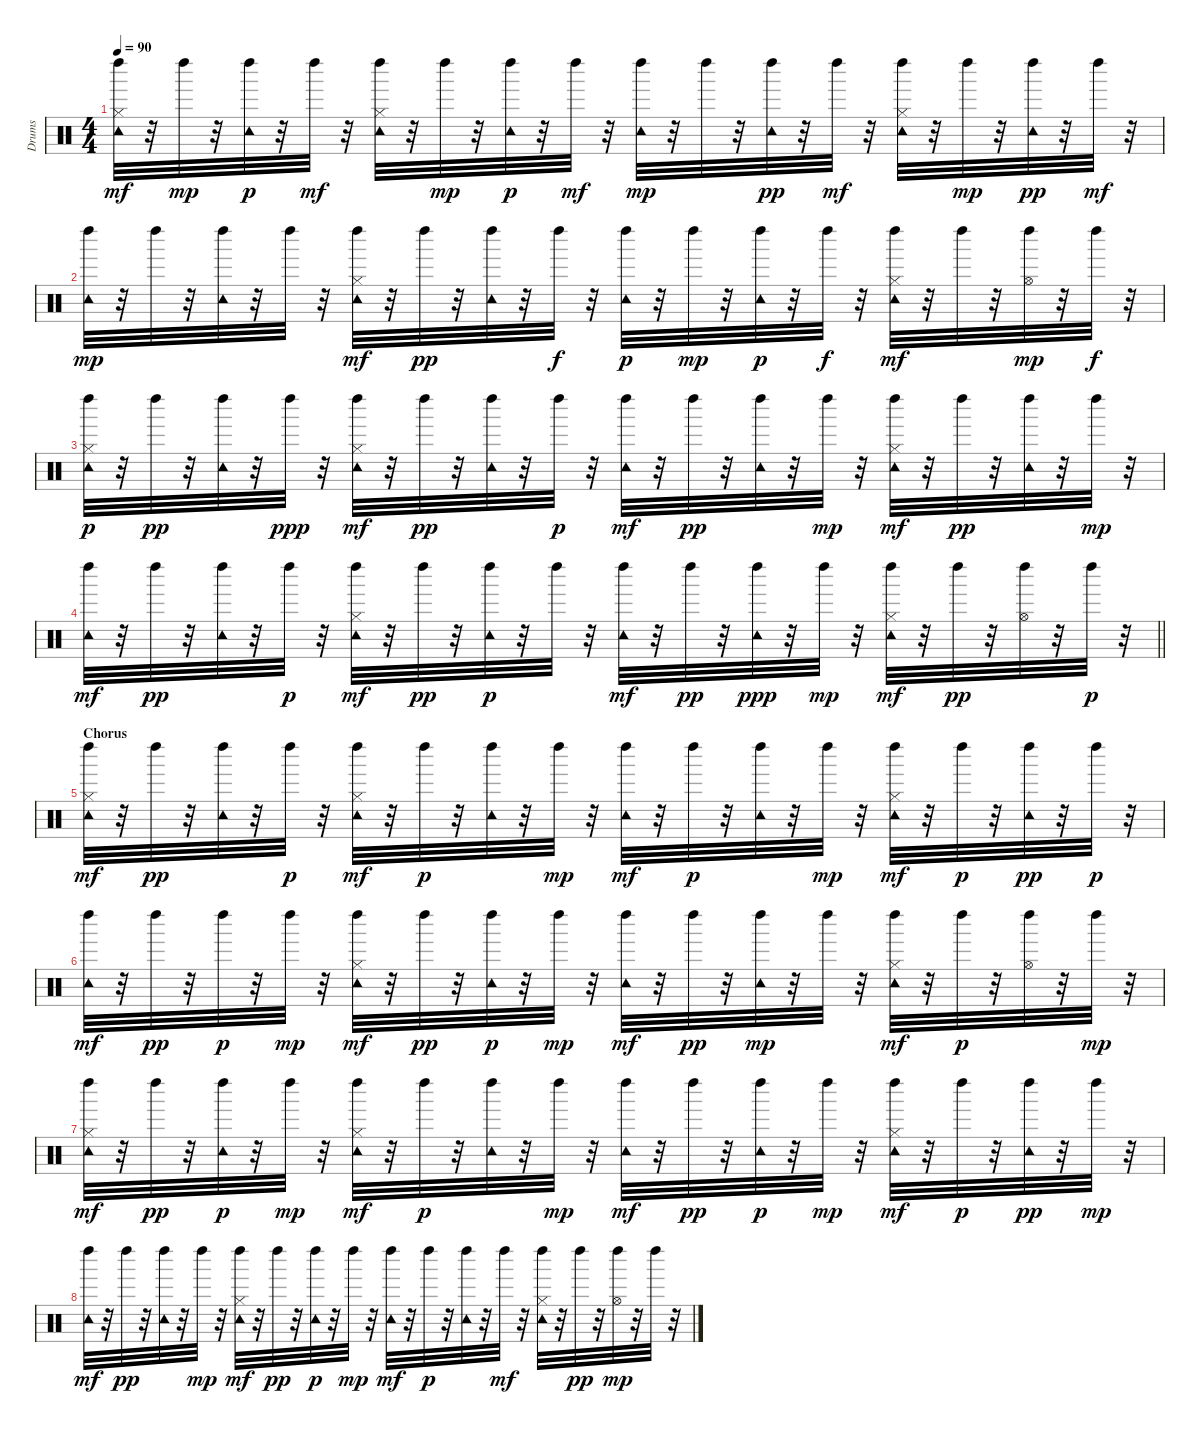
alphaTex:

\track ("Drums" "Drums") {instrument percussion}
\staff {score}
\articulation defaults
\ts (4 4)
\tempo 90
\clef neutral
\ks c
("Hi-Hat (closed)" "Tambourine (hit)" "Left Maraca (hit)").32{dy mf} r.32 "Left Maraca (hit)".32{dy mp} r.32 ("Tambourine (hit)" "Left Maraca (hit)").32{dy p} r.32 "Left Maraca (hit)".32{dy mf} r.32 ("Hi-Hat (closed)" "Tambourine (hit)" "Left Maraca (hit)").32 r.32 "Left Maraca (hit)".32{dy mp} r.32 ("Tambourine (hit)" "Left Maraca (hit)").32{dy p} r.32 "Left Maraca (hit)".32{dy mf} r.32 ("Tambourine (hit)" "Left Maraca (hit)").32{dy mp} r.32 "Left Maraca (hit)".32 r.32 ("Tambourine (hit)" "Left Maraca (hit)").32{dy pp} r.32 "Left Maraca (hit)".32{dy mf} r.32 ("Hi-Hat (closed)" "Tambourine (hit)" "Left Maraca (hit)").32 r.32 "Left Maraca (hit)".32{dy mp} r.32 ("Tambourine (hit)" "Left Maraca (hit)").32{dy pp} r.32 "Left Maraca (hit)".32{dy mf} r.32 |
("Tambourine (hit)" "Left Maraca (hit)").32{dy mp} r.32 "Left Maraca (hit)".32 r.32 ("Tambourine (hit)" "Left Maraca (hit)").32 r.32 "Left Maraca (hit)".32 r.32 ("Hi-Hat (closed)" "Tambourine (hit)" "Left Maraca (hit)").32{dy mf} r.32 "Left Maraca (hit)".32{dy pp} r.32 ("Tambourine (hit)" "Left Maraca (hit)").32 r.32 "Left Maraca (hit)".32{dy f} r.32 ("Tambourine (hit)" "Left Maraca (hit)").32{dy p} r.32 "Left Maraca (hit)".32{dy mp} r.32 ("Tambourine (hit)" "Left Maraca (hit)").32{dy p} r.32 "Left Maraca (hit)".32{dy f} r.32 ("Hi-Hat (closed)" "Tambourine (hit)" "Left Maraca (hit)").32{dy mf} r.32 "Left Maraca (hit)".32 r.32 ("Hi-Hat (open)" "Left Maraca (hit)").32{dy mp} r.32 "Left Maraca (hit)".32{dy f} r.32 |
("Hi-Hat (closed)" "Tambourine (hit)" "Left Maraca (hit)").32{dy p} r.32 "Left Maraca (hit)".32{dy pp} r.32 ("Tambourine (hit)" "Left Maraca (hit)").32 r.32 "Left Maraca (hit)".32{dy ppp} r.32 ("Hi-Hat (closed)" "Tambourine (hit)" "Left Maraca (hit)").32{dy mf} r.32 "Left Maraca (hit)".32{dy pp} r.32 ("Tambourine (hit)" "Left Maraca (hit)").32 r.32 "Left Maraca (hit)".32{dy p} r.32 ("Tambourine (hit)" "Left Maraca (hit)").32{dy mf} r.32 "Left Maraca (hit)".32{dy pp} r.32 ("Tambourine (hit)" "Left Maraca (hit)").32 r.32 "Left Maraca (hit)".32{dy mp} r.32 ("Hi-Hat (closed)" "Tambourine (hit)" "Left Maraca (hit)").32{dy mf} r.32 "Left Maraca (hit)".32{dy pp} r.32 ("Tambourine (hit)" "Left Maraca (hit)").32 r.32 "Left Maraca (hit)".32{dy mp} r.32 |
\barLineRight lightlight
("Tambourine (hit)" "Left Maraca (hit)").32{dy mf} r.32 "Left Maraca (hit)".32{dy pp} r.32 ("Tambourine (hit)" "Left Maraca (hit)").32 r.32 "Left Maraca (hit)".32{dy p} r.32 ("Hi-Hat (closed)" "Tambourine (hit)" "Left Maraca (hit)").32{dy mf} r.32 "Left Maraca (hit)".32{dy pp} r.32 ("Tambourine (hit)" "Left Maraca (hit)").32{dy p} r.32 "Left Maraca (hit)".32 r.32 ("Tambourine (hit)" "Left Maraca (hit)").32{dy mf} r.32 "Left Maraca (hit)".32{dy pp} r.32 ("Tambourine (hit)" "Left Maraca (hit)").32{dy ppp} r.32 "Left Maraca (hit)".32{dy mp} r.32 ("Hi-Hat (closed)" "Tambourine (hit)" "Left Maraca (hit)").32{dy mf} r.32 "Left Maraca (hit)".32{dy pp} r.32 ("Hi-Hat (open)" "Left Maraca (hit)").32 r.32 "Left Maraca (hit)".32{dy p} r.32 |
\section ("" "Chorus")
("Hi-Hat (closed)" "Tambourine (hit)" "Left Maraca (hit)").32{dy mf} r.32 "Left Maraca (hit)".32{dy pp} r.32 ("Tambourine (hit)" "Left Maraca (hit)").32 r.32 "Left Maraca (hit)".32{dy p} r.32 ("Hi-Hat (closed)" "Tambourine (hit)" "Left Maraca (hit)").32{dy mf} r.32 "Left Maraca (hit)".32{dy p} r.32 ("Tambourine (hit)" "Left Maraca (hit)").32 r.32 "Left Maraca (hit)".32{dy mp} r.32 ("Tambourine (hit)" "Left Maraca (hit)").32{dy mf} r.32 "Left Maraca (hit)".32{dy p} r.32 ("Tambourine (hit)" "Left Maraca (hit)").32 r.32 "Left Maraca (hit)".32{dy mp} r.32 ("Hi-Hat (closed)" "Tambourine (hit)" "Left Maraca (hit)").32{dy mf} r.32 "Left Maraca (hit)".32{dy p} r.32 ("Tambourine (hit)" "Left Maraca (hit)").32{dy pp} r.32 "Left Maraca (hit)".32{dy p} r.32 |
("Tambourine (hit)" "Left Maraca (hit)").32{dy mf} r.32 "Left Maraca (hit)".32{dy pp} r.32 "Left Maraca (hit)".32{dy p} r.32 "Left Maraca (hit)".32{dy mp} r.32 ("Hi-Hat (closed)" "Tambourine (hit)" "Left Maraca (hit)").32{dy mf} r.32 "Left Maraca (hit)".32{dy pp} r.32 ("Tambourine (hit)" "Left Maraca (hit)").32{dy p} r.32 "Left Maraca (hit)".32{dy mp} r.32 ("Tambourine (hit)" "Left Maraca (hit)").32{dy mf} r.32 "Left Maraca (hit)".32{dy pp} r.32 ("Tambourine (hit)" "Left Maraca (hit)").32{dy mp} r.32 "Left Maraca (hit)".32 r.32 ("Hi-Hat (closed)" "Tambourine (hit)" "Left Maraca (hit)").32{dy mf} r.32 "Left Maraca (hit)".32{dy p} r.32 ("Hi-Hat (open)" "Left Maraca (hit)").32 r.32 "Left Maraca (hit)".32{dy mp} r.32 |
("Hi-Hat (closed)" "Tambourine (hit)" "Left Maraca (hit)").32{dy mf} r.32 "Left Maraca (hit)".32{dy pp} r.32 ("Tambourine (hit)" "Left Maraca (hit)").32{dy p} r.32 "Left Maraca (hit)".32{dy mp} r.32 ("Hi-Hat (closed)" "Tambourine (hit)" "Left Maraca (hit)").32{dy mf} r.32 "Left Maraca (hit)".32{dy p} r.32 ("Tambourine (hit)" "Left Maraca (hit)").32 r.32 "Left Maraca (hit)".32{dy mp} r.32 ("Tambourine (hit)" "Left Maraca (hit)").32{dy mf} r.32 "Left Maraca (hit)".32{dy pp} r.32 ("Tambourine (hit)" "Left Maraca (hit)").32{dy p} r.32 "Left Maraca (hit)".32{dy mp} r.32 ("Hi-Hat (closed)" "Tambourine (hit)" "Left Maraca (hit)").32{dy mf} r.32 "Left Maraca (hit)".32{dy p} r.32 ("Tambourine (hit)" "Left Maraca (hit)").32{dy pp} r.32 "Left Maraca (hit)".32{dy mp} r.32 |
("Tambourine (hit)" "Left Maraca (hit)").32{dy mf} r.32 "Left Maraca (hit)".32{dy pp} r.32 ("Tambourine (hit)" "Left Maraca (hit)").32 r.32 "Left Maraca (hit)".32{dy mp} r.32 ("Hi-Hat (closed)" "Tambourine (hit)" "Left Maraca (hit)").32{dy mf} r.32 "Left Maraca (hit)".32{dy pp} r.32 ("Tambourine (hit)" "Left Maraca (hit)").32{dy p} r.32 "Left Maraca (hit)".32{dy mp} r.32 ("Tambourine (hit)" "Left Maraca (hit)").32{dy mf} r.32 "Left Maraca (hit)".32{dy p} r.32 ("Tambourine (hit)" "Left Maraca (hit)").32 r.32 "Left Maraca (hit)".32{dy mf} r.32 ("Hi-Hat (closed)" "Tambourine (hit)" "Left Maraca (hit)").32 r.32 "Left Maraca (hit)".32{dy pp} r.32 ("Hi-Hat (open)" "Left Maraca (hit)").32{dy mp} r.32 "Left Maraca (hit)".32 r.32
